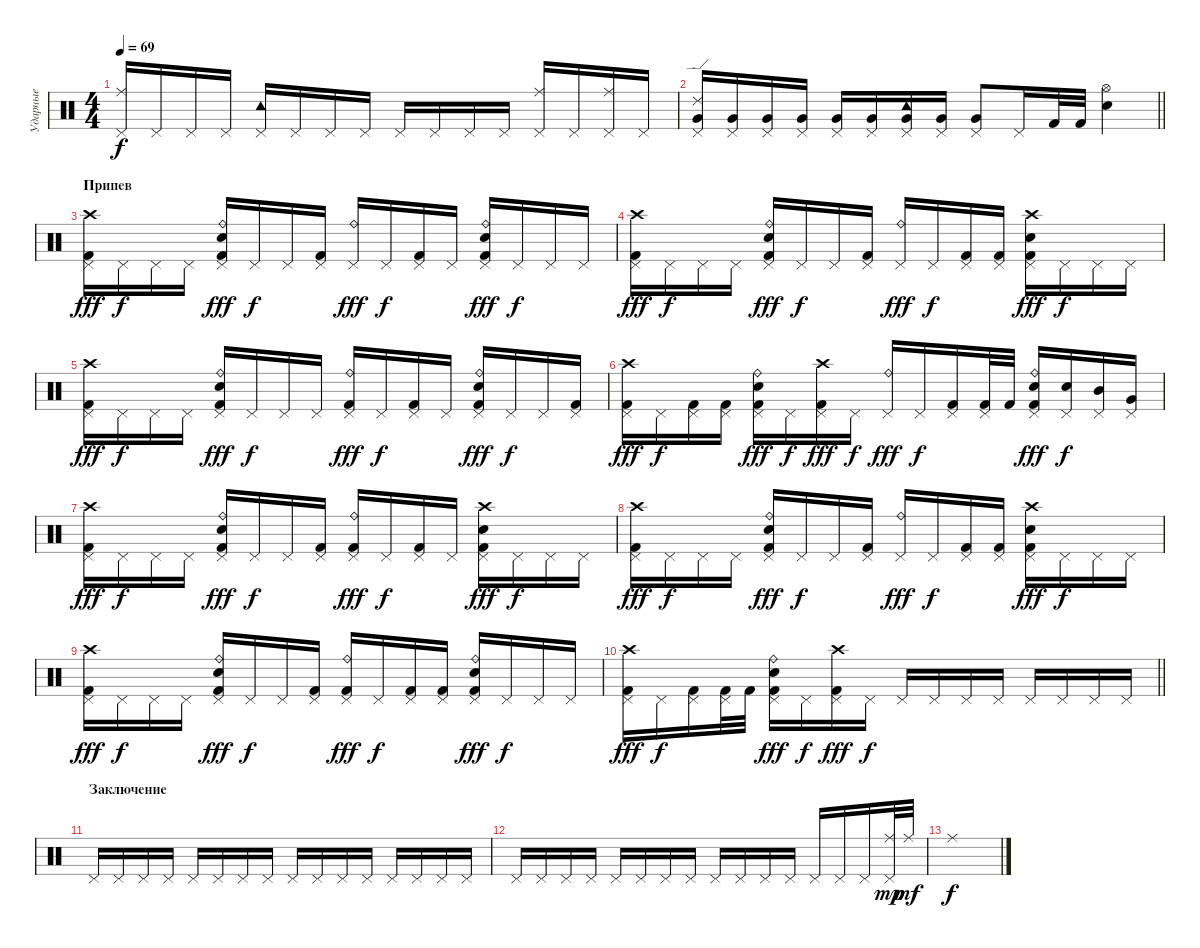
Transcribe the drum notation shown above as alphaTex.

\track ("Ударные" "Ударные") {instrument percussion}
\staff {score}
\articulation defaults
\ts (4 4)
\tempo 69
\clef neutral
\ks c
("Pedal Hi-Hat (hit)" "Ride (middle)").16{dy f} "Pedal Hi-Hat (hit)".16 "Pedal Hi-Hat (hit)".16 "Pedal Hi-Hat (hit)".16 ("Pedal Hi-Hat (hit)" "Tambourine (hit)").16 "Pedal Hi-Hat (hit)".16 "Pedal Hi-Hat (hit)".16 "Pedal Hi-Hat (hit)".16 "Pedal Hi-Hat (hit)".16 "Pedal Hi-Hat (hit)".16 "Pedal Hi-Hat (hit)".16 "Pedal Hi-Hat (hit)".16 ("Pedal Hi-Hat (hit)" "Ride (middle)").16 "Pedal Hi-Hat (hit)".16 ("Pedal Hi-Hat (hit)" "Ride (middle)").16 "Pedal Hi-Hat (hit)".16 |
\barLineRight lightlight
("Pedal Hi-Hat (hit)" "Very Low Tom (hit)" "Ride (edge) 2").16 ("Pedal Hi-Hat (hit)" "Very Low Tom (hit)").16 ("Pedal Hi-Hat (hit)" "Very Low Tom (hit)").16 ("Pedal Hi-Hat (hit)" "Very Low Tom (hit)").16 ("Pedal Hi-Hat (hit)" "Very Low Tom (hit)").16 ("Pedal Hi-Hat (hit)" "Very Low Tom (hit)").16 ("Pedal Hi-Hat (hit)" "Very Low Tom (hit)" "Tambourine (hit)").16 ("Pedal Hi-Hat (hit)" "Very Low Tom (hit)").16 ("Pedal Hi-Hat (hit)" "Very Low Tom (hit)").8 "Pedal Hi-Hat (hit)".16 "Kick (hit) 2".32 "Kick (hit) 2".32 ("Snare (hit) 2" "Hi-Hat (open)").4 |
\section ("" "Припев")
("Kick (hit) 2" "Pedal Hi-Hat (hit)" "Crash high (hit)").16{dy fff} "Pedal Hi-Hat (hit)".16{dy f} "Pedal Hi-Hat (hit)".16 "Pedal Hi-Hat (hit)".16 ("Kick (hit) 2" "Snare (hit) 2" "Pedal Hi-Hat (hit)" "Ride (bell)").16{dy fff} "Pedal Hi-Hat (hit)".16{dy f} "Pedal Hi-Hat (hit)".16 ("Kick (hit) 2" "Pedal Hi-Hat (hit)").16 ("Pedal Hi-Hat (hit)" "Ride (bell)").16{dy fff} "Pedal Hi-Hat (hit)".16{dy f} ("Kick (hit) 2" "Pedal Hi-Hat (hit)").16 "Pedal Hi-Hat (hit)".16 ("Snare (hit) 2" "Kick (hit) 2" "Ride (bell)" "Pedal Hi-Hat (hit)").16{dy fff} "Pedal Hi-Hat (hit)".16{dy f} "Pedal Hi-Hat (hit)".16 "Pedal Hi-Hat (hit)".16 |
("Kick (hit) 2" "Pedal Hi-Hat (hit)" "Crash high (hit)").16{dy fff} "Pedal Hi-Hat (hit)".16{dy f} "Pedal Hi-Hat (hit)".16 "Pedal Hi-Hat (hit)".16 ("Kick (hit) 2" "Snare (hit) 2" "Pedal Hi-Hat (hit)" "Ride (bell)").16{dy fff} "Pedal Hi-Hat (hit)".16{dy f} "Pedal Hi-Hat (hit)".16 ("Kick (hit) 2" "Pedal Hi-Hat (hit)").16 ("Pedal Hi-Hat (hit)" "Ride (bell)").16{dy fff} "Pedal Hi-Hat (hit)".16{dy f} ("Kick (hit) 2" "Pedal Hi-Hat (hit)").16 ("Kick (hit) 2" "Pedal Hi-Hat (hit)").16 ("Kick (hit) 2" "Snare (hit) 2" "Pedal Hi-Hat (hit)" "Crash high (hit)").16{dy fff} "Pedal Hi-Hat (hit)".16{dy f} "Pedal Hi-Hat (hit)".16 "Pedal Hi-Hat (hit)".16 |
("Kick (hit) 2" "Pedal Hi-Hat (hit)" "Crash high (hit)").16{dy fff} "Pedal Hi-Hat (hit)".16{dy f} "Pedal Hi-Hat (hit)".16 "Pedal Hi-Hat (hit)".16 ("Kick (hit) 2" "Snare (hit) 2" "Pedal Hi-Hat (hit)" "Ride (bell)").16{dy fff} "Pedal Hi-Hat (hit)".16{dy f} "Pedal Hi-Hat (hit)".16 "Pedal Hi-Hat (hit)".16 ("Pedal Hi-Hat (hit)" "Ride (bell)" "Kick (hit) 2").16{dy fff} "Pedal Hi-Hat (hit)".16{dy f} ("Kick (hit) 2" "Pedal Hi-Hat (hit)").16 "Pedal Hi-Hat (hit)".16 ("Snare (hit) 2" "Kick (hit) 2" "Ride (bell)" "Pedal Hi-Hat (hit)").16{dy fff} "Pedal Hi-Hat (hit)".16{dy f} "Pedal Hi-Hat (hit)".16 ("Kick (hit) 2" "Pedal Hi-Hat (hit)").16 |
("Kick (hit) 2" "Pedal Hi-Hat (hit)" "Crash high (hit)").16{dy fff} "Pedal Hi-Hat (hit)".16{dy f} ("Kick (hit) 2" "Pedal Hi-Hat (hit)").16 ("Kick (hit) 2" "Pedal Hi-Hat (hit)").16 ("Kick (hit) 2" "Snare (hit) 2" "Pedal Hi-Hat (hit)" "Ride (bell)").16{dy fff} "Pedal Hi-Hat (hit)".16{dy f} ("Kick (hit) 2" "Pedal Hi-Hat (hit)" "Crash high (hit)").16{dy fff} "Pedal Hi-Hat (hit)".16{dy f} ("Pedal Hi-Hat (hit)" "Ride (bell)").16{dy fff} "Pedal Hi-Hat (hit)".16{dy f} ("Kick (hit) 2" "Pedal Hi-Hat (hit)").16 ("Kick (hit) 2" "Pedal Hi-Hat (hit)").32 "Kick (hit) 2".32 ("Kick (hit) 2" "Snare (hit) 2" "Pedal Hi-Hat (hit)" "Ride (bell)").16{dy fff} ("Snare (hit) 2" "Pedal Hi-Hat (hit)").16{dy f} ("Pedal Hi-Hat (hit)" "Mid Tom (hit)").16 ("Very Low Tom (hit)" "Pedal Hi-Hat (hit)").16 |
("Kick (hit) 2" "Pedal Hi-Hat (hit)" "Crash high (hit)").16{dy fff} "Pedal Hi-Hat (hit)".16{dy f} "Pedal Hi-Hat (hit)".16 "Pedal Hi-Hat (hit)".16 ("Kick (hit) 2" "Snare (hit) 2" "Pedal Hi-Hat (hit)" "Ride (bell)").16{dy fff} "Pedal Hi-Hat (hit)".16{dy f} "Pedal Hi-Hat (hit)".16 ("Kick (hit) 2" "Pedal Hi-Hat (hit)").16 ("Pedal Hi-Hat (hit)" "Ride (bell)" "Kick (hit) 2").16{dy fff} "Pedal Hi-Hat (hit)".16{dy f} ("Kick (hit) 2" "Pedal Hi-Hat (hit)").16 "Pedal Hi-Hat (hit)".16 ("Kick (hit) 2" "Snare (hit) 2" "Pedal Hi-Hat (hit)" "Crash high (hit)").16{dy fff} "Pedal Hi-Hat (hit)".16{dy f} "Pedal Hi-Hat (hit)".16 "Pedal Hi-Hat (hit)".16 |
("Kick (hit) 2" "Pedal Hi-Hat (hit)" "Crash high (hit)").16{dy fff} "Pedal Hi-Hat (hit)".16{dy f} "Pedal Hi-Hat (hit)".16 "Pedal Hi-Hat (hit)".16 ("Kick (hit) 2" "Snare (hit) 2" "Pedal Hi-Hat (hit)" "Ride (bell)").16{dy fff} "Pedal Hi-Hat (hit)".16{dy f} "Pedal Hi-Hat (hit)".16 ("Kick (hit) 2" "Pedal Hi-Hat (hit)").16 ("Pedal Hi-Hat (hit)" "Ride (bell)").16{dy fff} "Pedal Hi-Hat (hit)".16{dy f} ("Kick (hit) 2" "Pedal Hi-Hat (hit)").16 ("Kick (hit) 2" "Pedal Hi-Hat (hit)").16 ("Kick (hit) 2" "Snare (hit) 2" "Pedal Hi-Hat (hit)" "Crash high (hit)").16{dy fff} "Pedal Hi-Hat (hit)".16{dy f} "Pedal Hi-Hat (hit)".16 "Pedal Hi-Hat (hit)".16 |
("Kick (hit) 2" "Pedal Hi-Hat (hit)" "Crash high (hit)").16{dy fff} "Pedal Hi-Hat (hit)".16{dy f} "Pedal Hi-Hat (hit)".16 "Pedal Hi-Hat (hit)".16 ("Kick (hit) 2" "Snare (hit) 2" "Pedal Hi-Hat (hit)" "Ride (bell)").16{dy fff} "Pedal Hi-Hat (hit)".16{dy f} "Pedal Hi-Hat (hit)".16 ("Pedal Hi-Hat (hit)" "Kick (hit) 2").16 ("Pedal Hi-Hat (hit)" "Ride (bell)" "Kick (hit) 2").16{dy fff} "Pedal Hi-Hat (hit)".16{dy f} ("Kick (hit) 2" "Pedal Hi-Hat (hit)").16 ("Kick (hit) 2" "Pedal Hi-Hat (hit)").16 ("Snare (hit) 2" "Kick (hit) 2" "Ride (bell)" "Pedal Hi-Hat (hit)").16{dy fff} "Pedal Hi-Hat (hit)".16{dy f} "Pedal Hi-Hat (hit)".16 "Pedal Hi-Hat (hit)".16 |
\barLineRight lightlight
("Kick (hit) 2" "Pedal Hi-Hat (hit)" "Crash high (hit)").16{dy fff} "Pedal Hi-Hat (hit)".16{dy f} ("Kick (hit) 2" "Pedal Hi-Hat (hit)").16 ("Kick (hit) 2" "Pedal Hi-Hat (hit)").32 "Kick (hit) 2".32 ("Kick (hit) 2" "Snare (hit) 2" "Pedal Hi-Hat (hit)" "Ride (bell)").16{dy fff} "Pedal Hi-Hat (hit)".16{dy f} ("Kick (hit) 2" "Pedal Hi-Hat (hit)" "Crash high (hit)").16{dy fff} "Pedal Hi-Hat (hit)".16{dy f} "Pedal Hi-Hat (hit)".16 "Pedal Hi-Hat (hit)".16 "Pedal Hi-Hat (hit)".16 "Pedal Hi-Hat (hit)".16 "Pedal Hi-Hat (hit)".16 "Pedal Hi-Hat (hit)".16 "Pedal Hi-Hat (hit)".16 "Pedal Hi-Hat (hit)".16 |
\section ("" "Заключение")
"Pedal Hi-Hat (hit)".16 "Pedal Hi-Hat (hit)".16 "Pedal Hi-Hat (hit)".16 "Pedal Hi-Hat (hit)".16 "Pedal Hi-Hat (hit)".16 "Pedal Hi-Hat (hit)".16 "Pedal Hi-Hat (hit)".16 "Pedal Hi-Hat (hit)".16 "Pedal Hi-Hat (hit)".16 "Pedal Hi-Hat (hit)".16 "Pedal Hi-Hat (hit)".16 "Pedal Hi-Hat (hit)".16 "Pedal Hi-Hat (hit)".16 "Pedal Hi-Hat (hit)".16 "Pedal Hi-Hat (hit)".16 "Pedal Hi-Hat (hit)".16 |
"Pedal Hi-Hat (hit)".16 "Pedal Hi-Hat (hit)".16 "Pedal Hi-Hat (hit)".16 "Pedal Hi-Hat (hit)".16 "Pedal Hi-Hat (hit)".16 "Pedal Hi-Hat (hit)".16 "Pedal Hi-Hat (hit)".16 "Pedal Hi-Hat (hit)".16 "Pedal Hi-Hat (hit)".16 "Pedal Hi-Hat (hit)".16 "Pedal Hi-Hat (hit)".16 "Pedal Hi-Hat (hit)".16 "Pedal Hi-Hat (hit)".16 "Pedal Hi-Hat (hit)".16 "Pedal Hi-Hat (hit)".16 ("Pedal Hi-Hat (hit)" "Ride (middle)").32{dy mp} "Ride (middle)".32{dy mf} |
"Ride (middle)".1{dy f}
